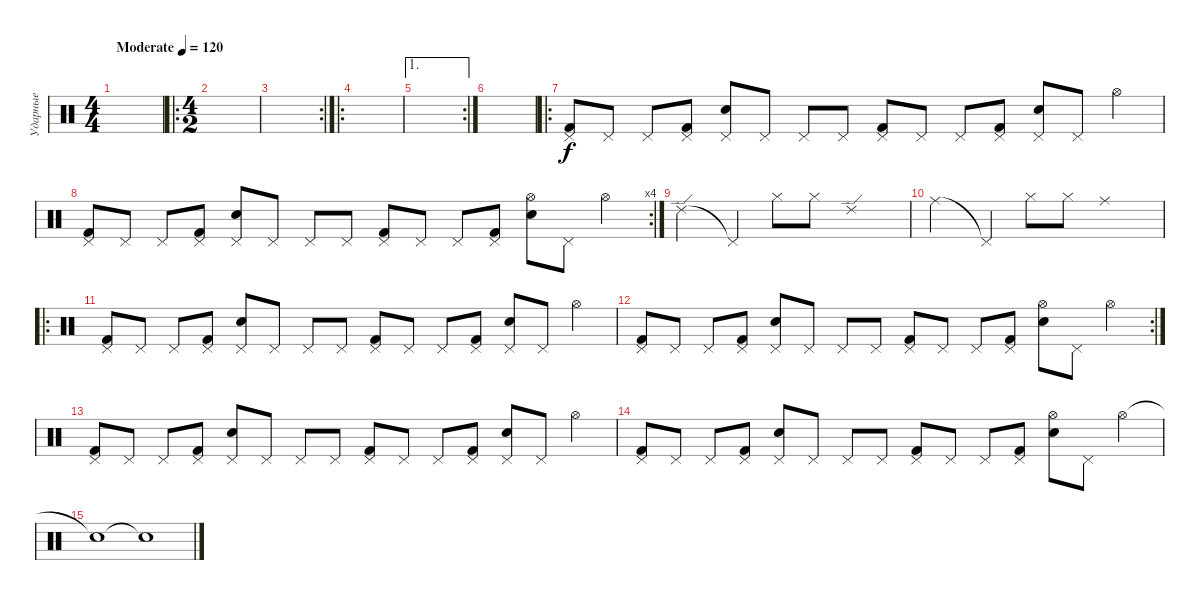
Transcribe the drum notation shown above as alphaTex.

\track ("Ударные" "Ударные") {instrument percussion}
\staff {score}
\articulation defaults
\ts (4 4)
\tempo (120 "Moderate")
\clef neutral
\ks c
|
\ro
\ts (4 2)
|
\rc 2
|
\ro
|
\ae 1
\rc 2
|
|
\ro
("Kick (hit) 2" "Pedal Hi-Hat (hit)").8 "Pedal Hi-Hat (hit)".8 "Pedal Hi-Hat (hit)".8 ("Kick (hit) 2" "Pedal Hi-Hat (hit)").8 ("Snare (hit) 2" "Pedal Hi-Hat (hit)").8 "Pedal Hi-Hat (hit)".8 "Pedal Hi-Hat (hit)".8 "Pedal Hi-Hat (hit)".8 ("Kick (hit) 2" "Pedal Hi-Hat (hit)").8 "Pedal Hi-Hat (hit)".8 "Pedal Hi-Hat (hit)".8 ("Kick (hit) 2" "Pedal Hi-Hat (hit)").8 ("Snare (hit) 2" "Pedal Hi-Hat (hit)").8 "Pedal Hi-Hat (hit)".8 "Hi-Hat (open)".4 |
\rc 4
("Kick (hit) 2" "Pedal Hi-Hat (hit)").8 "Pedal Hi-Hat (hit)".8 "Pedal Hi-Hat (hit)".8 ("Kick (hit) 2" "Pedal Hi-Hat (hit)").8 ("Snare (hit) 2" "Pedal Hi-Hat (hit)").8 "Pedal Hi-Hat (hit)".8 "Pedal Hi-Hat (hit)".8 "Pedal Hi-Hat (hit)".8 ("Kick (hit) 2" "Pedal Hi-Hat (hit)").8 "Pedal Hi-Hat (hit)".8 "Pedal Hi-Hat (hit)".8 ("Kick (hit) 2" "Pedal Hi-Hat (hit)").8 ("Snare (hit) 2" "Hi-Hat (open)").8 "Pedal Hi-Hat (hit)".8 "Hi-Hat (open)".4 |
"Ride (edge) 2".2 "Pedal Hi-Hat (hit)"{t}.4 "Hi-Hat (closed)".8 "Hi-Hat (closed)".8 "Ride (edge) 2".1 |
"Ride (middle)".2 "Pedal Hi-Hat (hit)"{t}.4 "Hi-Hat (closed)".8 "Hi-Hat (closed)".8 "Ride (middle)".1 |
\ro
("Kick (hit) 2" "Pedal Hi-Hat (hit)").8 "Pedal Hi-Hat (hit)".8 "Pedal Hi-Hat (hit)".8 ("Kick (hit) 2" "Pedal Hi-Hat (hit)").8 ("Snare (hit) 2" "Pedal Hi-Hat (hit)").8 "Pedal Hi-Hat (hit)".8 "Pedal Hi-Hat (hit)".8 "Pedal Hi-Hat (hit)".8 ("Kick (hit) 2" "Pedal Hi-Hat (hit)").8 "Pedal Hi-Hat (hit)".8 "Pedal Hi-Hat (hit)".8 ("Kick (hit) 2" "Pedal Hi-Hat (hit)").8 ("Snare (hit) 2" "Pedal Hi-Hat (hit)").8 "Pedal Hi-Hat (hit)".8 "Hi-Hat (open)".4 |
\rc 2
("Kick (hit) 2" "Pedal Hi-Hat (hit)").8 "Pedal Hi-Hat (hit)".8 "Pedal Hi-Hat (hit)".8 ("Kick (hit) 2" "Pedal Hi-Hat (hit)").8 ("Snare (hit) 2" "Pedal Hi-Hat (hit)").8 "Pedal Hi-Hat (hit)".8 "Pedal Hi-Hat (hit)".8 "Pedal Hi-Hat (hit)".8 ("Kick (hit) 2" "Pedal Hi-Hat (hit)").8 "Pedal Hi-Hat (hit)".8 "Pedal Hi-Hat (hit)".8 ("Kick (hit) 2" "Pedal Hi-Hat (hit)").8 ("Snare (hit) 2" "Hi-Hat (open)").8 "Pedal Hi-Hat (hit)".8 "Hi-Hat (open)".4 |
("Kick (hit) 2" "Pedal Hi-Hat (hit)").8 "Pedal Hi-Hat (hit)".8 "Pedal Hi-Hat (hit)".8 ("Kick (hit) 2" "Pedal Hi-Hat (hit)").8 ("Snare (hit) 2" "Pedal Hi-Hat (hit)").8 "Pedal Hi-Hat (hit)".8 "Pedal Hi-Hat (hit)".8 "Pedal Hi-Hat (hit)".8 ("Kick (hit) 2" "Pedal Hi-Hat (hit)").8 "Pedal Hi-Hat (hit)".8 "Pedal Hi-Hat (hit)".8 ("Kick (hit) 2" "Pedal Hi-Hat (hit)").8 ("Snare (hit) 2" "Pedal Hi-Hat (hit)").8 "Pedal Hi-Hat (hit)".8 "Hi-Hat (open)".4 |
("Kick (hit) 2" "Pedal Hi-Hat (hit)").8 "Pedal Hi-Hat (hit)".8 "Pedal Hi-Hat (hit)".8 ("Kick (hit) 2" "Pedal Hi-Hat (hit)").8 ("Snare (hit) 2" "Pedal Hi-Hat (hit)").8 "Pedal Hi-Hat (hit)".8 "Pedal Hi-Hat (hit)".8 "Pedal Hi-Hat (hit)".8 ("Kick (hit) 2" "Pedal Hi-Hat (hit)").8 "Pedal Hi-Hat (hit)".8 "Pedal Hi-Hat (hit)".8 ("Kick (hit) 2" "Pedal Hi-Hat (hit)").8 ("Snare (hit) 2" "Hi-Hat (open)").8 "Pedal Hi-Hat (hit)".8 "Hi-Hat (open)".4 |
"Snare (hit)"{t}.1 "Snare (hit)"{t}.1
